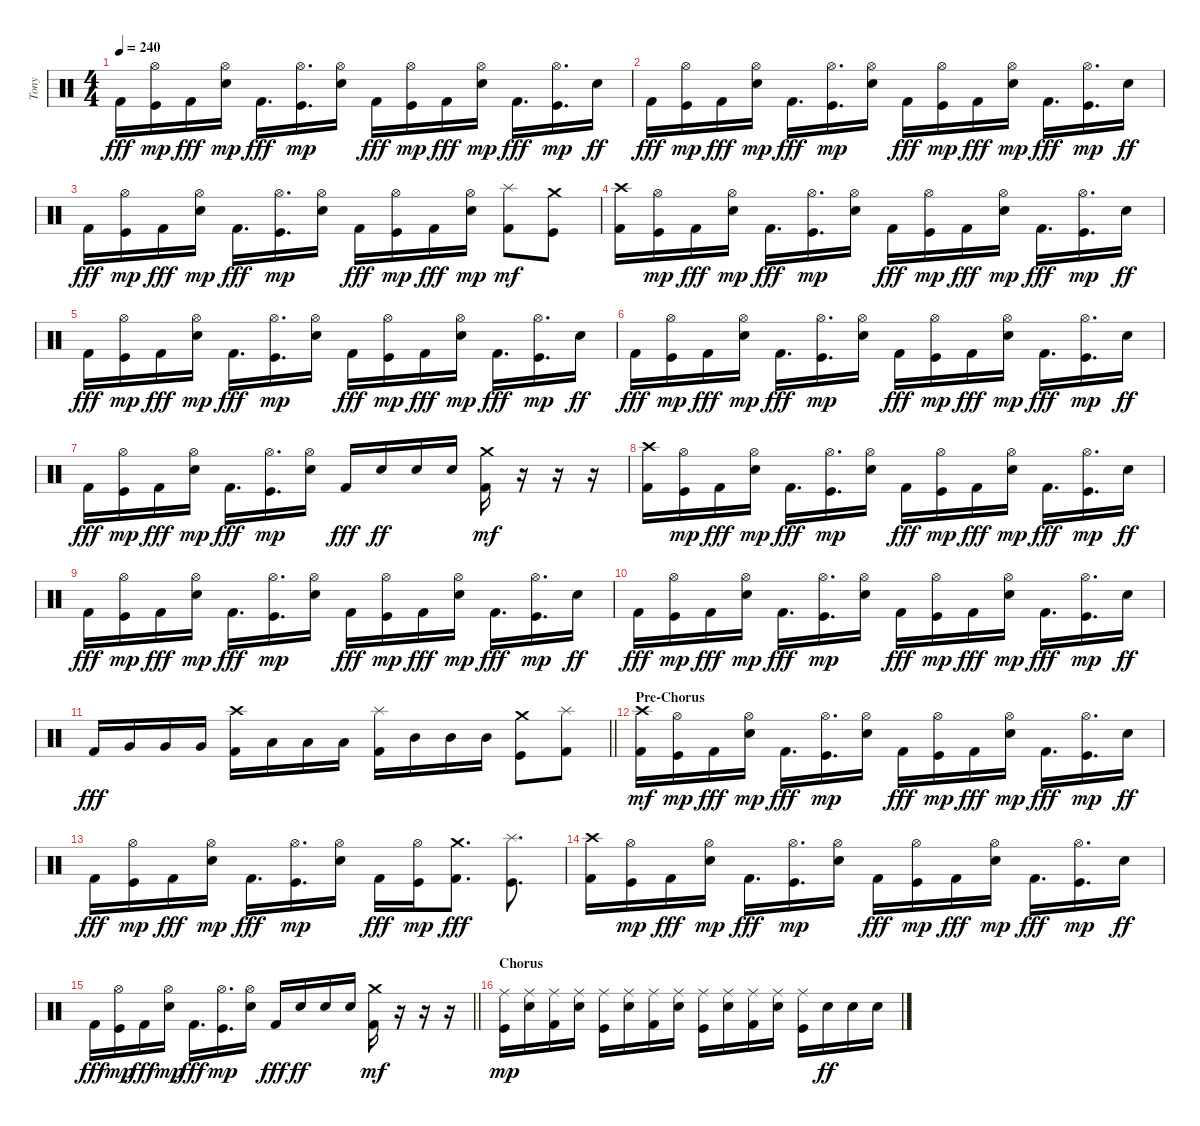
\track ("Tony" "Tony") {instrument percussion}
\staff {score}
\articulation defaults
\ts (4 4)
\tempo 240
\clef neutral
\ks c "Kick (hit) 2".16{dy fff}
("Kick (hit)" "Hi-Hat (open)").16{dy mp} "Kick (hit) 2".16{dy fff} ("Snare (hit) 2" "Hi-Hat (open)").16{dy mp} "Kick (hit) 2".16{d dy fff} ("Kick (hit)" "Hi-Hat (open)").16{d dy mp} ("Snare (hit) 2" "Hi-Hat (open)").16 "Kick (hit) 2".16{dy fff} ("Kick (hit)" "Hi-Hat (open)").16{dy mp} "Kick (hit) 2".16{dy fff} ("Snare (hit) 2" "Hi-Hat (open)").16{dy mp} "Kick (hit) 2".16{d dy fff} ("Kick (hit)" "Hi-Hat (open)").16{d dy mp} "Snare (hit) 2".16{dy ff} |
"Kick (hit) 2".16{dy fff} ("Kick (hit)" "Hi-Hat (open)").16{dy mp} "Kick (hit) 2".16{dy fff} ("Snare (hit) 2" "Hi-Hat (open)").16{dy mp} "Kick (hit) 2".16{d dy fff} ("Kick (hit)" "Hi-Hat (open)").16{d dy mp} ("Snare (hit) 2" "Hi-Hat (open)").16 "Kick (hit) 2".16{dy fff} ("Kick (hit)" "Hi-Hat (open)").16{dy mp} "Kick (hit) 2".16{dy fff} ("Snare (hit) 2" "Hi-Hat (open)").16{dy mp} "Kick (hit) 2".16{d dy fff} ("Kick (hit)" "Hi-Hat (open)").16{d dy mp} "Snare (hit) 2".16{dy ff} |
"Kick (hit) 2".16{dy fff} ("Kick (hit)" "Hi-Hat (open)").16{dy mp} "Kick (hit) 2".16{dy fff} ("Snare (hit) 2" "Hi-Hat (open)").16{dy mp} "Kick (hit) 2".16{d dy fff} ("Kick (hit)" "Hi-Hat (open)").16{d dy mp} ("Snare (hit) 2" "Hi-Hat (open)").16 "Kick (hit) 2".16{dy fff} ("Kick (hit)" "Hi-Hat (open)").16{dy mp} "Kick (hit) 2".16{dy fff} ("Snare (hit) 2" "Hi-Hat (open)").16{dy mp} ("Kick (hit) 2" "Splash (hit)").8{dy mf} ("Kick (hit)" "Crash medium (hit)").8 |
("Kick (hit) 2" "Crash high (hit)").16 ("Kick (hit)" "Hi-Hat (open)").16{dy mp} "Kick (hit) 2".16{dy fff} ("Snare (hit) 2" "Hi-Hat (open)").16{dy mp} "Kick (hit) 2".16{d dy fff} ("Kick (hit)" "Hi-Hat (open)").16{d dy mp} ("Snare (hit) 2" "Hi-Hat (open)").16 "Kick (hit) 2".16{dy fff} ("Kick (hit)" "Hi-Hat (open)").16{dy mp} "Kick (hit) 2".16{dy fff} ("Snare (hit) 2" "Hi-Hat (open)").16{dy mp} "Kick (hit) 2".16{d dy fff} ("Kick (hit)" "Hi-Hat (open)").16{d dy mp} "Snare (hit) 2".16{dy ff} |
"Kick (hit) 2".16{dy fff} ("Kick (hit)" "Hi-Hat (open)").16{dy mp} "Kick (hit) 2".16{dy fff} ("Snare (hit) 2" "Hi-Hat (open)").16{dy mp} "Kick (hit) 2".16{d dy fff} ("Kick (hit)" "Hi-Hat (open)").16{d dy mp} ("Snare (hit) 2" "Hi-Hat (open)").16 "Kick (hit) 2".16{dy fff} ("Kick (hit)" "Hi-Hat (open)").16{dy mp} "Kick (hit) 2".16{dy fff} ("Snare (hit) 2" "Hi-Hat (open)").16{dy mp} "Kick (hit) 2".16{d dy fff} ("Kick (hit)" "Hi-Hat (open)").16{d dy mp} "Snare (hit) 2".16{dy ff} |
"Kick (hit) 2".16{dy fff} ("Kick (hit)" "Hi-Hat (open)").16{dy mp} "Kick (hit) 2".16{dy fff} ("Snare (hit) 2" "Hi-Hat (open)").16{dy mp} "Kick (hit) 2".16{d dy fff} ("Kick (hit)" "Hi-Hat (open)").16{d dy mp} ("Snare (hit) 2" "Hi-Hat (open)").16 "Kick (hit) 2".16{dy fff} ("Kick (hit)" "Hi-Hat (open)").16{dy mp} "Kick (hit) 2".16{dy fff} ("Snare (hit) 2" "Hi-Hat (open)").16{dy mp} "Kick (hit) 2".16{d dy fff} ("Kick (hit)" "Hi-Hat (open)").16{d dy mp} "Snare (hit) 2".16{dy ff} |
"Kick (hit) 2".16{dy fff} ("Kick (hit)" "Hi-Hat (open)").16{dy mp} "Kick (hit) 2".16{dy fff} ("Snare (hit) 2" "Hi-Hat (open)").16{dy mp} "Kick (hit) 2".16{d dy fff} ("Kick (hit)" "Hi-Hat (open)").16{d dy mp} ("Snare (hit) 2" "Hi-Hat (open)").16 "Kick (hit) 2".16{dy fff} "Snare (hit) 2".16{dy ff} "Snare (hit) 2".16 "Snare (hit) 2".16 ("Kick (hit) 2" "Crash medium (hit)").16{dy mf} r.16 r.16 r.16 |
("Kick (hit) 2" "Crash high (hit)").16 ("Kick (hit)" "Hi-Hat (open)").16{dy mp} "Kick (hit) 2".16{dy fff} ("Snare (hit) 2" "Hi-Hat (open)").16{dy mp} "Kick (hit) 2".16{d dy fff} ("Kick (hit)" "Hi-Hat (open)").16{d dy mp} ("Snare (hit) 2" "Hi-Hat (open)").16 "Kick (hit) 2".16{dy fff} ("Kick (hit)" "Hi-Hat (open)").16{dy mp} "Kick (hit) 2".16{dy fff} ("Snare (hit) 2" "Hi-Hat (open)").16{dy mp} "Kick (hit) 2".16{d dy fff} ("Kick (hit)" "Hi-Hat (open)").16{d dy mp} "Snare (hit) 2".16{dy ff} |
"Kick (hit) 2".16{dy fff} ("Kick (hit)" "Hi-Hat (open)").16{dy mp} "Kick (hit) 2".16{dy fff} ("Snare (hit) 2" "Hi-Hat (open)").16{dy mp} "Kick (hit) 2".16{d dy fff} ("Kick (hit)" "Hi-Hat (open)").16{d dy mp} ("Snare (hit) 2" "Hi-Hat (open)").16 "Kick (hit) 2".16{dy fff} ("Kick (hit)" "Hi-Hat (open)").16{dy mp} "Kick (hit) 2".16{dy fff} ("Snare (hit) 2" "Hi-Hat (open)").16{dy mp} "Kick (hit) 2".16{d dy fff} ("Kick (hit)" "Hi-Hat (open)").16{d dy mp} "Snare (hit) 2".16{dy ff} |
"Kick (hit) 2".16{dy fff} ("Kick (hit)" "Hi-Hat (open)").16{dy mp} "Kick (hit) 2".16{dy fff} ("Snare (hit) 2" "Hi-Hat (open)").16{dy mp} "Kick (hit) 2".16{d dy fff} ("Kick (hit)" "Hi-Hat (open)").16{d dy mp} ("Snare (hit) 2" "Hi-Hat (open)").16 "Kick (hit) 2".16{dy fff} ("Kick (hit)" "Hi-Hat (open)").16{dy mp} "Kick (hit) 2".16{dy fff} ("Snare (hit) 2" "Hi-Hat (open)").16{dy mp} "Kick (hit) 2".16{d dy fff} ("Kick (hit)" "Hi-Hat (open)").16{d dy mp} "Snare (hit) 2".16{dy ff} |
\barLineRight lightlight "Kick (hit) 2".16{dy fff} "Very Low Tom (hit)".16 "Very Low Tom (hit)".16 "Very Low Tom (hit)".16
("Kick (hit) 2" "Crash high (hit)").16 "Low Tom (hit)".16 "Low Tom (hit)".16 "Low Tom (hit)".16 ("Kick (hit) 2" "Splash (hit)").16 "Mid Tom (hit)".16 "Mid Tom (hit)".16 "Mid Tom (hit)".16 ("Kick (hit)" "Crash medium (hit)").8 ("Kick (hit) 2" "Splash (hit)").8 |
\section ("" "Pre-Chorus")
("Kick (hit) 2" "Crash high (hit)").16{dy mf} ("Kick (hit)" "Hi-Hat (open)").16{dy mp} "Kick (hit) 2".16{dy fff} ("Snare (hit) 2" "Hi-Hat (open)").16{dy mp} "Kick (hit) 2".16{d dy fff} ("Kick (hit)" "Hi-Hat (open)").16{d dy mp} ("Snare (hit) 2" "Hi-Hat (open)").16 "Kick (hit) 2".16{dy fff} ("Kick (hit)" "Hi-Hat (open)").16{dy mp} "Kick (hit) 2".16{dy fff} ("Snare (hit) 2" "Hi-Hat (open)").16{dy mp} "Kick (hit) 2".16{d dy fff} ("Kick (hit)" "Hi-Hat (open)").16{d dy mp} "Snare (hit) 2".16{dy ff} |
"Kick (hit) 2".16{dy fff} ("Kick (hit)" "Hi-Hat (open)").16{dy mp} "Kick (hit) 2".16{dy fff} ("Snare (hit) 2" "Hi-Hat (open)").16{dy mp} "Kick (hit) 2".16{d dy fff} ("Kick (hit)" "Hi-Hat (open)").16{d dy mp} ("Snare (hit) 2" "Hi-Hat (open)").16 "Kick (hit) 2".16{dy fff} ("Kick (hit)" "Hi-Hat (open)").16{dy mp} ("Kick (hit) 2" "Crash medium (hit)").8{d dy fff} ("Kick (hit)" "Splash (hit)").8{d} |
("Kick (hit) 2" "Crash high (hit)").16 ("Kick (hit)" "Hi-Hat (open)").16{dy mp} "Kick (hit) 2".16{dy fff} ("Snare (hit) 2" "Hi-Hat (open)").16{dy mp} "Kick (hit) 2".16{d dy fff} ("Kick (hit)" "Hi-Hat (open)").16{d dy mp} ("Snare (hit) 2" "Hi-Hat (open)").16 "Kick (hit) 2".16{dy fff} ("Kick (hit)" "Hi-Hat (open)").16{dy mp} "Kick (hit) 2".16{dy fff} ("Snare (hit) 2" "Hi-Hat (open)").16{dy mp} "Kick (hit) 2".16{d dy fff} ("Kick (hit)" "Hi-Hat (open)").16{d dy mp} "Snare (hit) 2".16{dy ff} |
\barLineRight lightlight "Kick (hit) 2".16{dy fff}
("Kick (hit)" "Hi-Hat (open)").16{dy mp} "Kick (hit) 2".16{dy fff} ("Snare (hit) 2" "Hi-Hat (open)").16{dy mp} "Kick (hit) 2".16{d dy fff} ("Kick (hit)" "Hi-Hat (open)").16{d dy mp} ("Snare (hit) 2" "Hi-Hat (open)").16 "Kick (hit) 2".16{dy fff} "Snare (hit) 2".16{dy ff} "Snare (hit) 2".16 "Snare (hit) 2".16 ("Kick (hit) 2" "Crash medium (hit)").16{dy mf} r.16 r.16 r.16 |
\section ("" "Chorus")
("Kick (hit)" "Ride (middle)").16{dy mp} ("Snare (hit) 2" "Ride (middle)").16 ("Kick (hit) 2" "Ride (middle)").16 ("Snare (hit) 2" "Ride (middle)").16 ("Kick (hit)" "Ride (middle)").16 ("Snare (hit) 2" "Ride (middle)").16 ("Kick (hit) 2" "Ride (middle)").16 ("Snare (hit) 2" "Ride (middle)").16 ("Kick (hit)" "Ride (middle)").16 ("Snare (hit) 2" "Ride (middle)").16 ("Kick (hit) 2" "Ride (middle)").16 ("Snare (hit) 2" "Ride (middle)").16 ("Kick (hit)" "Ride (middle)").16 "Snare (hit) 2".16{dy ff} "Snare (hit) 2".16 "Snare (hit) 2".16
